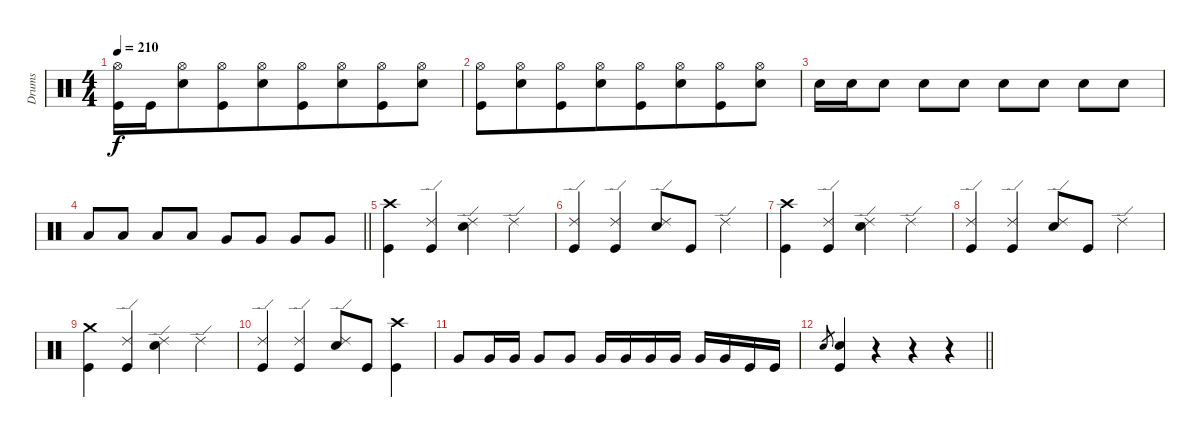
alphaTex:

\track ("Drums" "Drums") {instrument percussion}
\staff {score}
\articulation defaults
\ts (4 4)
\tempo 210
\clef neutral
\ks c
("Hi-Hat (open)" "Kick (hit)").16{dy f} "Kick (hit)".16 ("Hi-Hat (open)" "Electric Snare (hit)").8{beam merge} ("Hi-Hat (open)" "Kick (hit)").8 ("Hi-Hat (open)" "Electric Snare (hit)").8{beam merge} ("Hi-Hat (open)" "Kick (hit)").8 ("Hi-Hat (open)" "Electric Snare (hit)").8{beam merge} ("Hi-Hat (open)" "Kick (hit)").8 ("Hi-Hat (open)" "Electric Snare (hit)").8 |
("Hi-Hat (open)" "Kick (hit)").8 ("Hi-Hat (open)" "Electric Snare (hit)").8{beam merge} ("Hi-Hat (open)" "Kick (hit)").8 ("Hi-Hat (open)" "Electric Snare (hit)").8{beam merge} ("Hi-Hat (open)" "Kick (hit)").8 ("Hi-Hat (open)" "Electric Snare (hit)").8{beam merge} ("Hi-Hat (open)" "Kick (hit)").8 ("Hi-Hat (open)" "Electric Snare (hit)").8 |
"Electric Snare (hit)".16{beam merge} "Electric Snare (hit)".16 "Electric Snare (hit)".8 "Electric Snare (hit)".8{beam merge} "Electric Snare (hit)".8 "Electric Snare (hit)".8 "Electric Snare (hit)".8 "Electric Snare (hit)".8 "Electric Snare (hit)".8 |
\barLineRight lightlight "Low Tom (hit)".8 "Low Tom (hit)".8 "Low Tom (hit)".8 "Low Tom (hit)".8 "Very Low Tom (hit)".8{beam merge} "Very Low Tom (hit)".8 "Very Low Tom (hit)".8 "Very Low Tom (hit)".8
|
("Crash high (hit)" "Kick (hit)").4 ("Ride (edge) 2" "Kick (hit)").4 ("Ride (edge) 2" "Electric Snare (hit)").4{beam merge} "Ride (edge) 2".4 |
("Ride (edge) 2" "Kick (hit)").4 ("Ride (edge) 2" "Kick (hit)").4 ("Ride (edge) 2" "Electric Snare (hit)").8 "Kick (hit)".8 "Ride (edge) 2".4 |
("Crash high (hit)" "Kick (hit)").4 ("Ride (edge) 2" "Kick (hit)").4 ("Ride (edge) 2" "Electric Snare (hit)").4{beam merge} "Ride (edge) 2".4 |
("Ride (edge) 2" "Kick (hit)").4 ("Ride (edge) 2" "Kick (hit)").4 ("Ride (edge) 2" "Electric Snare (hit)").8 "Kick (hit)".8 "Ride (edge) 2".4 |
("Crash medium (hit)" "Kick (hit)").4 ("Ride (edge) 2" "Kick (hit)").4 ("Ride (edge) 2" "Electric Snare (hit)").4{beam merge} "Ride (edge) 2".4 |
("Ride (edge) 2" "Kick (hit)").4 ("Ride (edge) 2" "Kick (hit)").4 ("Ride (edge) 2" "Electric Snare (hit)").8 "Kick (hit)".8 ("Crash high (hit)" "Kick (hit)").4 |
"Very Low Tom (hit)".8 "Very Low Tom (hit)".16 "Very Low Tom (hit)".16 "Very Low Tom (hit)".8 "Very Low Tom (hit)".8 "Very Low Tom (hit)".16 "Very Low Tom (hit)".16 "Very Low Tom (hit)".16 "Very Low Tom (hit)".16 "Very Low Tom (hit)".16 "Very Low Tom (hit)".16 "Kick (hit)".16{beam merge} "Kick (hit)".16 |
\barLineRight lightlight "Snare (hit)".8{gr}
("Electric Snare (hit)" "Kick (hit)").4 r.4 r.4 r.4
